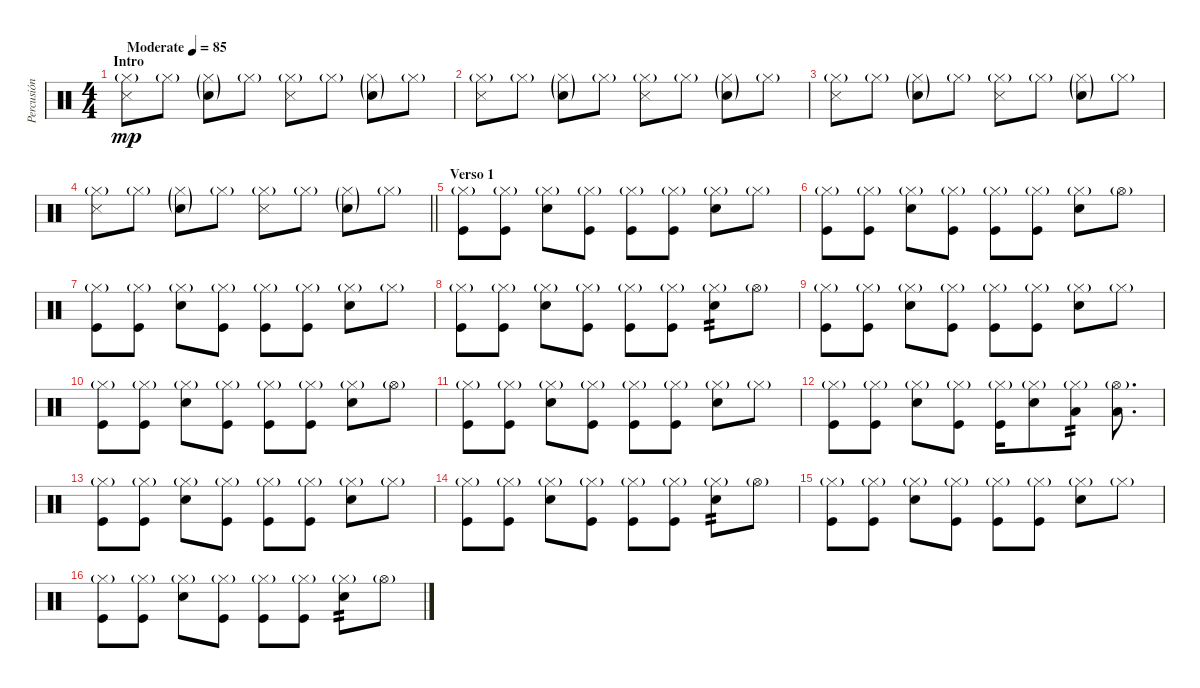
\track ("Percusión" "Percusión") {instrument percussion}
\staff {score}
\articulation defaults
\ts (4 4)
\section ("" "Intro")
\tempo (85 "Moderate")
\clef neutral
\ks c
("Snare (side stick) 3" "Hi-Hat (closed)"{g}).8{dy mp} "Hi-Hat (closed)"{g}.8 ("Snare (hit) 2"{g} "Hi-Hat (closed)"{g}).8 "Hi-Hat (closed)"{g}.8 ("Snare (side stick) 3" "Hi-Hat (closed)"{g}).8 "Hi-Hat (closed)"{g}.8 ("Snare (hit) 2"{g} "Hi-Hat (closed)"{g}).8 "Hi-Hat (closed)"{g}.8 |
("Snare (side stick) 3" "Hi-Hat (closed)"{g}).8 "Hi-Hat (closed)"{g}.8 ("Snare (hit) 2"{g} "Hi-Hat (closed)"{g}).8 "Hi-Hat (closed)"{g}.8 ("Snare (side stick) 3" "Hi-Hat (closed)"{g}).8 "Hi-Hat (closed)"{g}.8 ("Snare (hit) 2"{g} "Hi-Hat (closed)"{g}).8 "Hi-Hat (closed)"{g}.8 |
("Snare (side stick) 3" "Hi-Hat (closed)"{g}).8 "Hi-Hat (closed)"{g}.8 ("Snare (hit) 2"{g} "Hi-Hat (closed)"{g}).8 "Hi-Hat (closed)"{g}.8 ("Snare (side stick) 3" "Hi-Hat (closed)"{g}).8 "Hi-Hat (closed)"{g}.8 ("Snare (hit) 2"{g} "Hi-Hat (closed)"{g}).8 "Hi-Hat (closed)"{g}.8 |
\barLineRight lightlight
("Snare (side stick) 3" "Hi-Hat (closed)"{g}).8 "Hi-Hat (closed)"{g}.8 ("Snare (hit) 2"{g} "Hi-Hat (closed)"{g}).8 "Hi-Hat (closed)"{g}.8 ("Snare (side stick) 3" "Hi-Hat (closed)"{g}).8 "Hi-Hat (closed)"{g}.8 ("Snare (hit) 2"{g} "Hi-Hat (closed)"{g}).8 "Hi-Hat (closed)"{g}.8 |
\section ("" "Verso 1")
("Hi-Hat (closed)"{g} "Kick (hit)").8 ("Hi-Hat (closed)"{g} "Kick (hit)").8 ("Hi-Hat (closed)"{g} "Electric Snare (hit)").8 ("Hi-Hat (closed)"{g} "Kick (hit)").8 ("Hi-Hat (closed)"{g} "Kick (hit)").8 ("Hi-Hat (closed)"{g} "Kick (hit)").8 ("Hi-Hat (closed)"{g} "Electric Snare (hit)").8 "Hi-Hat (closed)"{g}.8 |
("Hi-Hat (closed)"{g} "Kick (hit)").8 ("Hi-Hat (closed)"{g} "Kick (hit)").8 ("Hi-Hat (closed)"{g} "Electric Snare (hit)").8 ("Hi-Hat (closed)"{g} "Kick (hit)").8 ("Hi-Hat (closed)"{g} "Kick (hit)").8 ("Hi-Hat (closed)"{g} "Kick (hit)").8 ("Hi-Hat (closed)"{g} "Electric Snare (hit)").8 "Hi-Hat (open)"{g}.8 |
("Hi-Hat (closed)"{g} "Kick (hit)").8 ("Hi-Hat (closed)"{g} "Kick (hit)").8 ("Hi-Hat (closed)"{g} "Electric Snare (hit)").8 ("Hi-Hat (closed)"{g} "Kick (hit)").8 ("Hi-Hat (closed)"{g} "Kick (hit)").8 ("Hi-Hat (closed)"{g} "Kick (hit)").8 ("Hi-Hat (closed)"{g} "Electric Snare (hit)").8 "Hi-Hat (closed)"{g}.8 |
("Hi-Hat (closed)"{g} "Kick (hit)").8 ("Hi-Hat (closed)"{g} "Kick (hit)").8 ("Hi-Hat (closed)"{g} "Electric Snare (hit)").8 ("Hi-Hat (closed)"{g} "Kick (hit)").8 ("Hi-Hat (closed)"{g} "Kick (hit)").8 ("Hi-Hat (closed)"{g} "Kick (hit)").8 ("Hi-Hat (closed)"{g} "Electric Snare (hit)").8{tp 2} "Hi-Hat (open)"{g}.8 |
("Hi-Hat (closed)"{g} "Kick (hit)").8 ("Hi-Hat (closed)"{g} "Kick (hit)").8 ("Hi-Hat (closed)"{g} "Electric Snare (hit)").8 ("Hi-Hat (closed)"{g} "Kick (hit)").8 ("Hi-Hat (closed)"{g} "Kick (hit)").8 ("Hi-Hat (closed)"{g} "Kick (hit)").8 ("Hi-Hat (closed)"{g} "Electric Snare (hit)").8 "Hi-Hat (closed)"{g}.8 |
("Hi-Hat (closed)"{g} "Kick (hit)").8 ("Hi-Hat (closed)"{g} "Kick (hit)").8 ("Hi-Hat (closed)"{g} "Electric Snare (hit)").8 ("Hi-Hat (closed)"{g} "Kick (hit)").8 ("Hi-Hat (closed)"{g} "Kick (hit)").8 ("Hi-Hat (closed)"{g} "Kick (hit)").8 ("Hi-Hat (closed)"{g} "Electric Snare (hit)").8 "Hi-Hat (open)"{g}.8 |
("Hi-Hat (closed)"{g} "Kick (hit)").8 ("Hi-Hat (closed)"{g} "Kick (hit)").8 ("Hi-Hat (closed)"{g} "Electric Snare (hit)").8 ("Hi-Hat (closed)"{g} "Kick (hit)").8 ("Hi-Hat (closed)"{g} "Kick (hit)").8 ("Hi-Hat (closed)"{g} "Kick (hit)").8 ("Hi-Hat (closed)"{g} "Electric Snare (hit)").8 "Hi-Hat (closed)"{g}.8 |
("Hi-Hat (closed)"{g} "Kick (hit)").8 ("Hi-Hat (closed)"{g} "Kick (hit)").8 ("Hi-Hat (closed)"{g} "Electric Snare (hit)").8 ("Hi-Hat (closed)"{g} "Kick (hit)").8 ("Hi-Hat (closed)"{g} "Kick (hit)").16 ("Hi-Hat (closed)"{g} "Electric Snare (hit)").8 ("Hi-Hat (closed)"{g} "Low Tom (hit)").8{tp 2} ("Hi-Hat (open)"{g} "Low Tom (hit)").8{d} |
("Hi-Hat (closed)"{g} "Kick (hit)").8 ("Hi-Hat (closed)"{g} "Kick (hit)").8 ("Hi-Hat (closed)"{g} "Electric Snare (hit)").8 ("Hi-Hat (closed)"{g} "Kick (hit)").8 ("Hi-Hat (closed)"{g} "Kick (hit)").8 ("Hi-Hat (closed)"{g} "Kick (hit)").8 ("Hi-Hat (closed)"{g} "Electric Snare (hit)").8 "Hi-Hat (closed)"{g}.8 |
("Hi-Hat (closed)"{g} "Kick (hit)").8 ("Hi-Hat (closed)"{g} "Kick (hit)").8 ("Hi-Hat (closed)"{g} "Electric Snare (hit)").8 ("Hi-Hat (closed)"{g} "Kick (hit)").8 ("Hi-Hat (closed)"{g} "Kick (hit)").8 ("Hi-Hat (closed)"{g} "Kick (hit)").8 ("Hi-Hat (closed)"{g} "Electric Snare (hit)").8{tp 2} "Hi-Hat (open)"{g}.8 |
("Hi-Hat (closed)"{g} "Kick (hit)").8 ("Hi-Hat (closed)"{g} "Kick (hit)").8 ("Hi-Hat (closed)"{g} "Electric Snare (hit)").8 ("Hi-Hat (closed)"{g} "Kick (hit)").8 ("Hi-Hat (closed)"{g} "Kick (hit)").8 ("Hi-Hat (closed)"{g} "Kick (hit)").8 ("Hi-Hat (closed)"{g} "Electric Snare (hit)").8 "Hi-Hat (closed)"{g}.8 |
("Hi-Hat (closed)"{g} "Kick (hit)").8 ("Hi-Hat (closed)"{g} "Kick (hit)").8 ("Hi-Hat (closed)"{g} "Electric Snare (hit)").8 ("Hi-Hat (closed)"{g} "Kick (hit)").8 ("Hi-Hat (closed)"{g} "Kick (hit)").8 ("Hi-Hat (closed)"{g} "Kick (hit)").8 ("Hi-Hat (closed)"{g} "Electric Snare (hit)").8{tp 2} "Hi-Hat (open)"{g}.8
